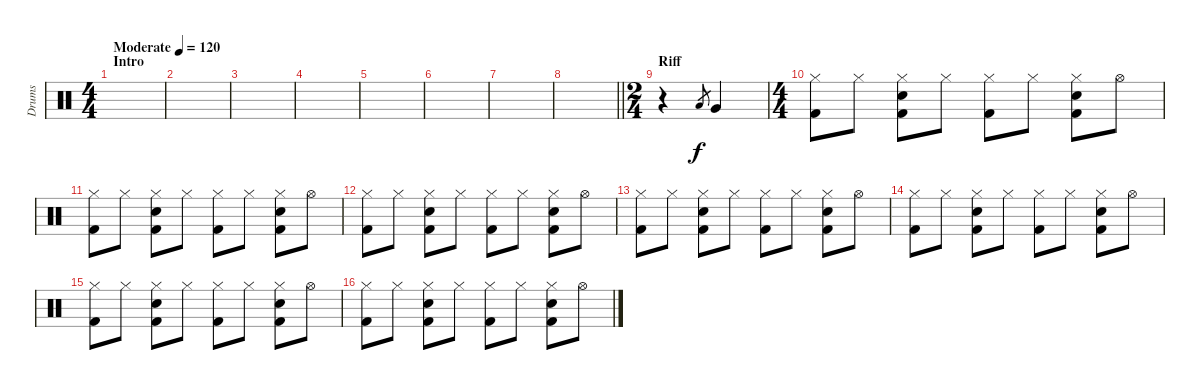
\track ("Drums" "Drums") {instrument percussion}
\staff {score}
\articulation defaults
\ts (4 4)
\section ("" "Intro")
\tempo (120 "Moderate")
\clef neutral
\ks c
|
|
|
|
|
|
|
\barLineRight lightlight
|
\ts (2 4)
\section ("" "Riff")
r.4 "Low Tom (hit)".8{gr} "Very Low Tom (hit)".4 |
\ts (4 4)
("Hi-Hat (closed)" "Kick (hit) 2").8 "Hi-Hat (closed)".8 ("Hi-Hat (closed)" "Electric Snare (hit)" "Kick (hit) 2").8 "Hi-Hat (closed)".8 ("Hi-Hat (closed)" "Kick (hit) 2").8 "Hi-Hat (closed)".8 ("Hi-Hat (closed)" "Electric Snare (hit)" "Kick (hit) 2").8 "Hi-Hat (open)".8 |
("Hi-Hat (closed)" "Kick (hit) 2").8 "Hi-Hat (closed)".8 ("Hi-Hat (closed)" "Electric Snare (hit)" "Kick (hit) 2").8 "Hi-Hat (closed)".8 ("Hi-Hat (closed)" "Kick (hit) 2").8 "Hi-Hat (closed)".8 ("Hi-Hat (closed)" "Electric Snare (hit)" "Kick (hit) 2").8 "Hi-Hat (open)".8 |
("Hi-Hat (closed)" "Kick (hit) 2").8 "Hi-Hat (closed)".8 ("Hi-Hat (closed)" "Electric Snare (hit)" "Kick (hit) 2").8 "Hi-Hat (closed)".8 ("Hi-Hat (closed)" "Kick (hit) 2").8 "Hi-Hat (closed)".8 ("Hi-Hat (closed)" "Electric Snare (hit)" "Kick (hit) 2").8 "Hi-Hat (open)".8 |
("Hi-Hat (closed)" "Kick (hit) 2").8 "Hi-Hat (closed)".8 ("Hi-Hat (closed)" "Electric Snare (hit)" "Kick (hit) 2").8 "Hi-Hat (closed)".8 ("Hi-Hat (closed)" "Kick (hit) 2").8 "Hi-Hat (closed)".8 ("Hi-Hat (closed)" "Electric Snare (hit)" "Kick (hit) 2").8 "Hi-Hat (open)".8 |
("Hi-Hat (closed)" "Kick (hit) 2").8 "Hi-Hat (closed)".8 ("Hi-Hat (closed)" "Electric Snare (hit)" "Kick (hit) 2").8 "Hi-Hat (closed)".8 ("Hi-Hat (closed)" "Kick (hit) 2").8 "Hi-Hat (closed)".8 ("Hi-Hat (closed)" "Electric Snare (hit)" "Kick (hit) 2").8 "Hi-Hat (open)".8 |
("Hi-Hat (closed)" "Kick (hit) 2").8 "Hi-Hat (closed)".8 ("Hi-Hat (closed)" "Electric Snare (hit)" "Kick (hit) 2").8 "Hi-Hat (closed)".8 ("Hi-Hat (closed)" "Kick (hit) 2").8 "Hi-Hat (closed)".8 ("Hi-Hat (closed)" "Electric Snare (hit)" "Kick (hit) 2").8 "Hi-Hat (open)".8 |
("Hi-Hat (closed)" "Kick (hit) 2").8 "Hi-Hat (closed)".8 ("Hi-Hat (closed)" "Electric Snare (hit)" "Kick (hit) 2").8 "Hi-Hat (closed)".8 ("Hi-Hat (closed)" "Kick (hit) 2").8 "Hi-Hat (closed)".8 ("Hi-Hat (closed)" "Electric Snare (hit)" "Kick (hit) 2").8 "Hi-Hat (open)".8
